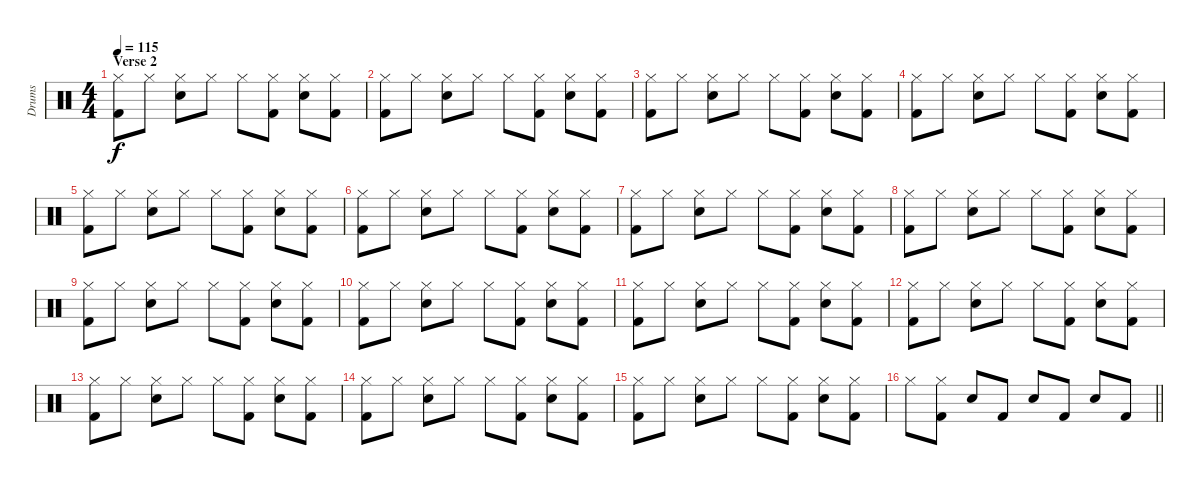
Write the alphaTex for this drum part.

\track ("Drums" "Drums") {instrument percussion}
\staff {score}
\articulation defaults
\ts (4 4)
\section ("" "Verse 2")
\tempo 115
\clef neutral
\ks c
("Hi-Hat (closed)" "Kick (hit) 2").8{dy f} "Hi-Hat (closed)".8 ("Hi-Hat (closed)" "Snare (hit) 2").8 "Hi-Hat (closed)".8 "Hi-Hat (closed)".8 ("Hi-Hat (closed)" "Kick (hit) 2").8 ("Hi-Hat (closed)" "Snare (hit) 2").8 ("Hi-Hat (closed)" "Kick (hit) 2").8 |
("Hi-Hat (closed)" "Kick (hit) 2").8 "Hi-Hat (closed)".8 ("Hi-Hat (closed)" "Snare (hit) 2").8 "Hi-Hat (closed)".8 "Hi-Hat (closed)".8 ("Hi-Hat (closed)" "Kick (hit) 2").8 ("Hi-Hat (closed)" "Snare (hit) 2").8 ("Hi-Hat (closed)" "Kick (hit) 2").8 |
("Hi-Hat (closed)" "Kick (hit) 2").8 "Hi-Hat (closed)".8 ("Hi-Hat (closed)" "Snare (hit) 2").8 "Hi-Hat (closed)".8 "Hi-Hat (closed)".8 ("Hi-Hat (closed)" "Kick (hit) 2").8 ("Hi-Hat (closed)" "Snare (hit) 2").8 ("Hi-Hat (closed)" "Kick (hit) 2").8 |
("Hi-Hat (closed)" "Kick (hit) 2").8 "Hi-Hat (closed)".8 ("Hi-Hat (closed)" "Snare (hit) 2").8 "Hi-Hat (closed)".8 "Hi-Hat (closed)".8 ("Hi-Hat (closed)" "Kick (hit) 2").8 ("Hi-Hat (closed)" "Snare (hit) 2").8 ("Hi-Hat (closed)" "Kick (hit) 2").8 |
("Hi-Hat (closed)" "Kick (hit) 2").8 "Hi-Hat (closed)".8 ("Hi-Hat (closed)" "Snare (hit) 2").8 "Hi-Hat (closed)".8 "Hi-Hat (closed)".8 ("Hi-Hat (closed)" "Kick (hit) 2").8 ("Hi-Hat (closed)" "Snare (hit) 2").8 ("Hi-Hat (closed)" "Kick (hit) 2").8 |
("Hi-Hat (closed)" "Kick (hit) 2").8 "Hi-Hat (closed)".8 ("Hi-Hat (closed)" "Snare (hit) 2").8 "Hi-Hat (closed)".8 "Hi-Hat (closed)".8 ("Hi-Hat (closed)" "Kick (hit) 2").8 ("Hi-Hat (closed)" "Snare (hit) 2").8 ("Hi-Hat (closed)" "Kick (hit) 2").8 |
("Hi-Hat (closed)" "Kick (hit) 2").8 "Hi-Hat (closed)".8 ("Hi-Hat (closed)" "Snare (hit) 2").8 "Hi-Hat (closed)".8 "Hi-Hat (closed)".8 ("Hi-Hat (closed)" "Kick (hit) 2").8 ("Hi-Hat (closed)" "Snare (hit) 2").8 ("Hi-Hat (closed)" "Kick (hit) 2").8 |
("Hi-Hat (closed)" "Kick (hit) 2").8 "Hi-Hat (closed)".8 ("Hi-Hat (closed)" "Snare (hit) 2").8 "Hi-Hat (closed)".8 "Hi-Hat (closed)".8 ("Hi-Hat (closed)" "Kick (hit) 2").8 ("Hi-Hat (closed)" "Snare (hit) 2").8 ("Hi-Hat (closed)" "Kick (hit) 2").8 |
("Hi-Hat (closed)" "Kick (hit) 2").8 "Hi-Hat (closed)".8 ("Hi-Hat (closed)" "Snare (hit) 2").8 "Hi-Hat (closed)".8 "Hi-Hat (closed)".8 ("Hi-Hat (closed)" "Kick (hit) 2").8 ("Hi-Hat (closed)" "Snare (hit) 2").8 ("Hi-Hat (closed)" "Kick (hit) 2").8 |
("Hi-Hat (closed)" "Kick (hit) 2").8 "Hi-Hat (closed)".8 ("Hi-Hat (closed)" "Snare (hit) 2").8 "Hi-Hat (closed)".8 "Hi-Hat (closed)".8 ("Hi-Hat (closed)" "Kick (hit) 2").8 ("Hi-Hat (closed)" "Snare (hit) 2").8 ("Hi-Hat (closed)" "Kick (hit) 2").8 |
("Hi-Hat (closed)" "Kick (hit) 2").8 "Hi-Hat (closed)".8 ("Hi-Hat (closed)" "Snare (hit) 2").8 "Hi-Hat (closed)".8 "Hi-Hat (closed)".8 ("Hi-Hat (closed)" "Kick (hit) 2").8 ("Hi-Hat (closed)" "Snare (hit) 2").8 ("Hi-Hat (closed)" "Kick (hit) 2").8 |
("Hi-Hat (closed)" "Kick (hit) 2").8 "Hi-Hat (closed)".8 ("Hi-Hat (closed)" "Snare (hit) 2").8 "Hi-Hat (closed)".8 "Hi-Hat (closed)".8 ("Hi-Hat (closed)" "Kick (hit) 2").8 ("Hi-Hat (closed)" "Snare (hit) 2").8 ("Hi-Hat (closed)" "Kick (hit) 2").8 |
("Hi-Hat (closed)" "Kick (hit) 2").8 "Hi-Hat (closed)".8 ("Hi-Hat (closed)" "Snare (hit) 2").8 "Hi-Hat (closed)".8 "Hi-Hat (closed)".8 ("Hi-Hat (closed)" "Kick (hit) 2").8 ("Hi-Hat (closed)" "Snare (hit) 2").8 ("Hi-Hat (closed)" "Kick (hit) 2").8 |
("Hi-Hat (closed)" "Kick (hit) 2").8 "Hi-Hat (closed)".8 ("Hi-Hat (closed)" "Snare (hit) 2").8 "Hi-Hat (closed)".8 "Hi-Hat (closed)".8 ("Hi-Hat (closed)" "Kick (hit) 2").8 ("Hi-Hat (closed)" "Snare (hit) 2").8 ("Hi-Hat (closed)" "Kick (hit) 2").8 |
("Hi-Hat (closed)" "Kick (hit) 2").8 "Hi-Hat (closed)".8 ("Hi-Hat (closed)" "Snare (hit) 2").8 "Hi-Hat (closed)".8 "Hi-Hat (closed)".8 ("Hi-Hat (closed)" "Kick (hit) 2").8 ("Hi-Hat (closed)" "Snare (hit) 2").8 ("Hi-Hat (closed)" "Kick (hit) 2").8 |
\barLineRight lightlight "Hi-Hat (closed)".8
("Hi-Hat (closed)" "Kick (hit) 2").8 "Snare (hit) 2".8 "Kick (hit) 2".8 "Snare (hit) 2".8 "Kick (hit) 2".8 "Snare (hit) 2".8 "Kick (hit) 2".8
